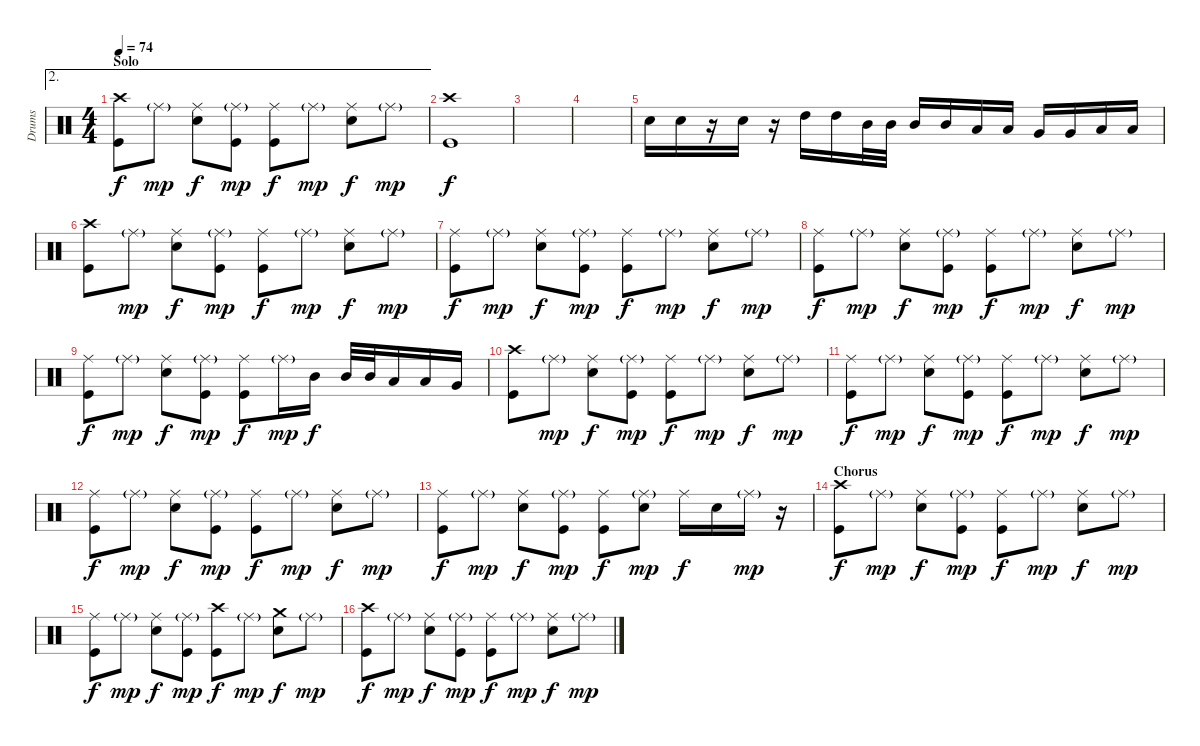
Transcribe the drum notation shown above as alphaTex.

\track ("Drums" "Drums") {instrument percussion}
\staff {score}
\articulation defaults
\ae 2
\ts (4 4)
\section ("" "Solo")
\tempo 74
\clef neutral
\ks c
("Crash high (hit)" "Kick (hit)").8{dy f} "Ride (middle)"{g}.8{dy mp} ("Ride (middle)" "Snare (hit) 2").8{dy f} ("Ride (middle)"{g} "Kick (hit)").8{dy mp} ("Ride (middle)" "Kick (hit)").8{dy f} "Ride (middle)"{g}.8{dy mp} ("Ride (middle)" "Snare (hit) 2").8{dy f} "Ride (middle)"{g}.8{dy mp} |
("Crash high (hit)" "Kick (hit)").1{dy f} |
|
|
"Snare (hit) 2".16 "Snare (hit) 2".16 r.16 "Snare (hit) 2".16 r.16 "High Tom (hit)".16 "High Tom (hit)".16 "Mid Tom (hit)".32 "Mid Tom (hit)".32 "Mid Tom (hit)".16 "Mid Tom (hit)".16 "Low Tom (hit)".16 "Low Tom (hit)".16 "Very Low Tom (hit)".16 "Very Low Tom (hit)".16 "Low Floor Tom (hit)".16 "Low Floor Tom (hit)".16 |
("Crash high (hit)" "Kick (hit)").8 "Ride (middle)"{g}.8{dy mp} ("Ride (middle)" "Snare (hit) 2").8{dy f} ("Ride (middle)"{g} "Kick (hit)").8{dy mp} ("Ride (middle)" "Kick (hit)").8{dy f} "Ride (middle)"{g}.8{dy mp} ("Ride (middle)" "Snare (hit) 2").8{dy f} "Ride (middle)"{g}.8{dy mp} |
("Ride (middle)" "Kick (hit)").8{dy f} "Ride (middle)"{g}.8{dy mp} ("Ride (middle)" "Snare (hit) 2").8{dy f} ("Ride (middle)"{g} "Kick (hit)").8{dy mp} ("Ride (middle)" "Kick (hit)").8{dy f} "Ride (middle)"{g}.8{dy mp} ("Ride (middle)" "Snare (hit) 2").8{dy f} "Ride (middle)"{g}.8{dy mp} |
("Ride (middle)" "Kick (hit)").8{dy f} "Ride (middle)"{g}.8{dy mp} ("Ride (middle)" "Snare (hit) 2").8{dy f} ("Ride (middle)"{g} "Kick (hit)").8{dy mp} ("Ride (middle)" "Kick (hit)").8{dy f} "Ride (middle)"{g}.8{dy mp} ("Ride (middle)" "Snare (hit) 2").8{dy f} "Ride (middle)"{g}.8{dy mp} |
("Ride (middle)" "Kick (hit)").8{dy f} "Ride (middle)"{g}.8{dy mp} ("Ride (middle)" "Snare (hit) 2").8{dy f} ("Ride (middle)"{g} "Kick (hit)").8{dy mp} ("Ride (middle)" "Kick (hit)").8{dy f} "Ride (middle)"{g}.16{dy mp} "Mid Tom (hit)".16{dy f} "Mid Tom (hit)".32 "Mid Tom (hit)".32 "Low Tom (hit)".16 "Low Tom (hit)".16 "Very Low Tom (hit)".16 |
("Crash high (hit)" "Kick (hit)").8 "Ride (middle)"{g}.8{dy mp} ("Ride (middle)" "Snare (hit) 2").8{dy f} ("Ride (middle)"{g} "Kick (hit)").8{dy mp} ("Ride (middle)" "Kick (hit)").8{dy f} "Ride (middle)"{g}.8{dy mp} ("Ride (middle)" "Snare (hit) 2").8{dy f} "Ride (middle)"{g}.8{dy mp} |
("Ride (middle)" "Kick (hit)").8{dy f} "Ride (middle)"{g}.8{dy mp} ("Ride (middle)" "Snare (hit) 2").8{dy f} ("Ride (middle)"{g} "Kick (hit)").8{dy mp} ("Ride (middle)" "Kick (hit)").8{dy f} "Ride (middle)"{g}.8{dy mp} ("Ride (middle)" "Snare (hit) 2").8{dy f} "Ride (middle)"{g}.8{dy mp} |
("Ride (middle)" "Kick (hit)").8{dy f} "Ride (middle)"{g}.8{dy mp} ("Ride (middle)" "Snare (hit) 2").8{dy f} ("Ride (middle)"{g} "Kick (hit)").8{dy mp} ("Ride (middle)" "Kick (hit)").8{dy f} "Ride (middle)"{g}.8{dy mp} ("Ride (middle)" "Snare (hit) 2").8{dy f} "Ride (middle)"{g}.8{dy mp} |
("Ride (middle)" "Kick (hit)").8{dy f} "Ride (middle)"{g}.8{dy mp} ("Ride (middle)" "Snare (hit) 2").8{dy f} ("Ride (middle)"{g} "Kick (hit)").8{dy mp} ("Ride (middle)" "Kick (hit)").8{dy f} ("Ride (middle)"{g} "Snare (hit) 2").8{dy mp} "Ride (middle)".16{dy f} "Snare (hit) 2".16 "Ride (middle)"{g}.16{dy mp} r.16 |
\section ("" "Chorus")
("Crash high (hit)" "Kick (hit)").8{dy f} "Ride (middle)"{g}.8{dy mp} ("Ride (middle)" "Snare (hit) 2").8{dy f} ("Ride (middle)"{g} "Kick (hit)").8{dy mp} ("Ride (middle)" "Kick (hit)").8{dy f} "Ride (middle)"{g}.8{dy mp} ("Ride (middle)" "Snare (hit) 2").8{dy f} "Ride (middle)"{g}.8{dy mp} |
("Ride (middle)" "Kick (hit)").8{dy f} "Ride (middle)"{g}.8{dy mp} ("Ride (middle)" "Snare (hit) 2").8{dy f} ("Ride (middle)"{g} "Kick (hit)").8{dy mp} ("Crash high (hit)" "Kick (hit)").8{dy f} "Ride (middle)"{g}.8{dy mp} ("Crash medium (hit)" "Snare (hit) 2").8{dy f} "Ride (middle)"{g}.8{dy mp} |
("Crash high (hit)" "Kick (hit)").8{dy f} "Ride (middle)"{g}.8{dy mp} ("Ride (middle)" "Snare (hit) 2").8{dy f} ("Ride (middle)"{g} "Kick (hit)").8{dy mp} ("Ride (middle)" "Kick (hit)").8{dy f} "Ride (middle)"{g}.8{dy mp} ("Ride (middle)" "Snare (hit) 2").8{dy f} "Ride (middle)"{g}.8{dy mp}
